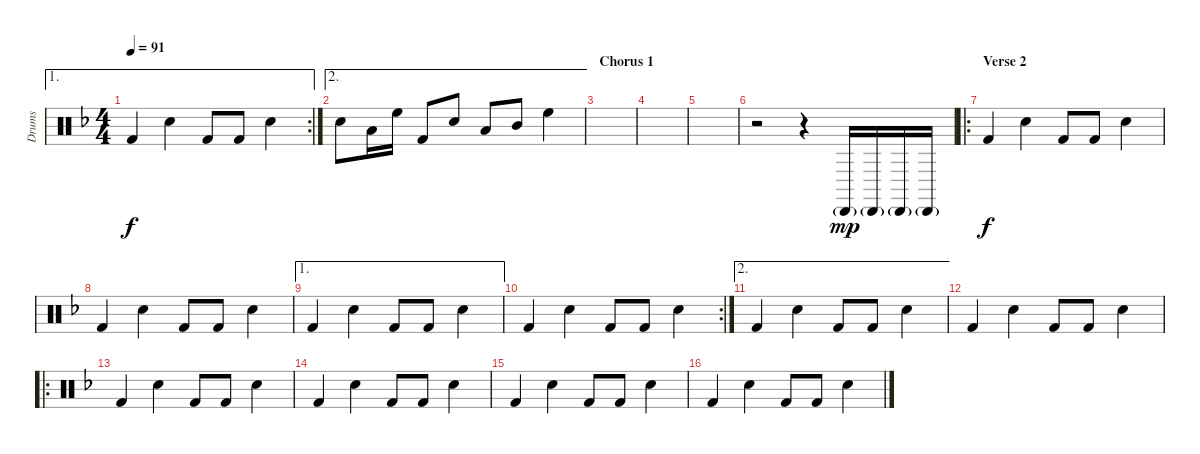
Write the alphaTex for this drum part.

\track ("Drums" "Drums") {instrument percussion}
\staff {score}
\articulation defaults
\ae 1
\rc 2
\ts (4 4)
\tempo 91
\clef neutral
\ks f "Kick (hit) 2".4{dy f} "Electric Snare (hit)".4 "Kick (hit) 2".8 "Kick (hit) 2".8 "Electric Snare (hit)".4
|
\ae 2 "Snare (hit) 2".8 "Low Tom (hit)".16 "High Floor Tom (hit)".16 "Kick (hit) 2".8 "Electric Snare (hit)".8 "Low Tom (hit)".8 "Mid Tom (hit)".8 "High Floor Tom (hit)".4
|
\section ("" "Chorus 1")
|
|
|
r.2 r.4 "Cabasa (hit)"{g}.16{dy mp balance 0} "Cabasa (hit)"{g}.16{balance 16} "Cabasa (hit)"{g}.16{balance 0} "Cabasa (hit)"{g}.16{balance 16} |
\ro
\section ("" "Verse 2")
"Kick (hit) 2".4{dy f} "Electric Snare (hit)".4 "Kick (hit) 2".8 "Kick (hit) 2".8 "Electric Snare (hit)".4 |
"Kick (hit) 2".4 "Electric Snare (hit)".4 "Kick (hit) 2".8 "Kick (hit) 2".8 "Electric Snare (hit)".4 |
\ae 1 "Kick (hit) 2".4 "Electric Snare (hit)".4 "Kick (hit) 2".8 "Kick (hit) 2".8 "Electric Snare (hit)".4
|
\rc 2 "Kick (hit) 2".4 "Electric Snare (hit)".4 "Kick (hit) 2".8 "Kick (hit) 2".8 "Electric Snare (hit)".4
|
\ae 2 "Kick (hit) 2".4 "Electric Snare (hit)".4 "Kick (hit) 2".8 "Kick (hit) 2".8 "Electric Snare (hit)".4
|
"Kick (hit) 2".4 "Electric Snare (hit)".4 "Kick (hit) 2".8 "Kick (hit) 2".8 "Electric Snare (hit)".4 |
\ro "Kick (hit) 2".4 "Electric Snare (hit)".4 "Kick (hit) 2".8 "Kick (hit) 2".8 "Electric Snare (hit)".4
|
"Kick (hit) 2".4 "Electric Snare (hit)".4 "Kick (hit) 2".8 "Kick (hit) 2".8 "Electric Snare (hit)".4 |
"Kick (hit) 2".4 "Electric Snare (hit)".4 "Kick (hit) 2".8 "Kick (hit) 2".8 "Electric Snare (hit)".4 |
"Kick (hit) 2".4 "Electric Snare (hit)".4 "Kick (hit) 2".8 "Kick (hit) 2".8 "Electric Snare (hit)".4
